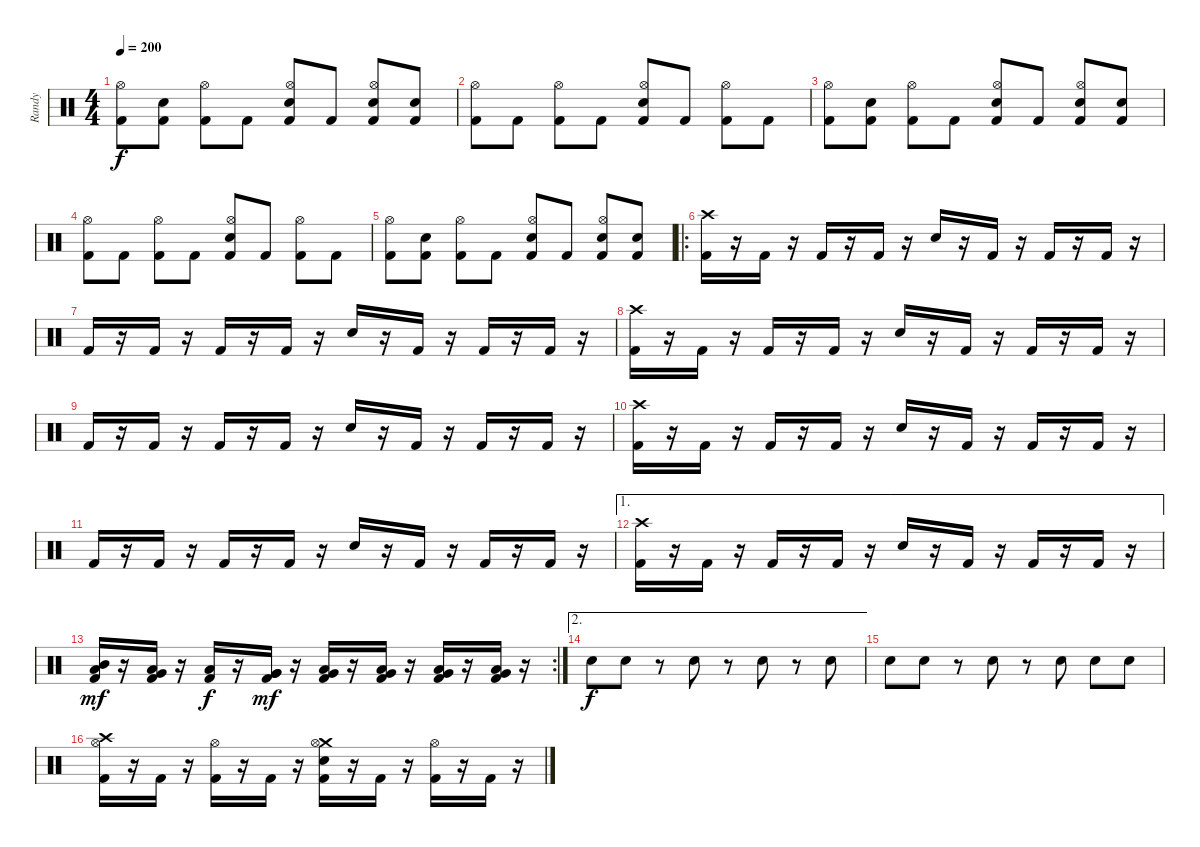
\track ("Randy" "Randy") {instrument percussion}
\staff {score}
\articulation defaults
\ts (4 4)
\tempo 200
\clef neutral
\ks c
("Kick (hit) 2" "Hi-Hat (open)").8{dy f} ("Kick (hit) 2" "Electric Snare (hit)").8 ("Kick (hit) 2" "Hi-Hat (open)").8 "Kick (hit) 2".8 ("Kick (hit) 2" "Electric Snare (hit)" "Hi-Hat (open)").8 "Kick (hit) 2".8 ("Kick (hit) 2" "Electric Snare (hit)" "Hi-Hat (open)").8 ("Kick (hit) 2" "Electric Snare (hit)").8 |
("Kick (hit) 2" "Hi-Hat (open)").8 "Kick (hit) 2".8 ("Kick (hit) 2" "Hi-Hat (open)").8 "Kick (hit) 2".8 ("Kick (hit) 2" "Electric Snare (hit)" "Hi-Hat (open)").8 "Kick (hit) 2".8 ("Kick (hit) 2" "Hi-Hat (open)").8 "Kick (hit) 2".8 |
("Kick (hit) 2" "Hi-Hat (open)").8 ("Kick (hit) 2" "Electric Snare (hit)").8 ("Kick (hit) 2" "Hi-Hat (open)").8 "Kick (hit) 2".8 ("Kick (hit) 2" "Electric Snare (hit)" "Hi-Hat (open)").8 "Kick (hit) 2".8 ("Kick (hit) 2" "Electric Snare (hit)" "Hi-Hat (open)").8 ("Kick (hit) 2" "Electric Snare (hit)").8 |
("Kick (hit) 2" "Hi-Hat (open)").8 "Kick (hit) 2".8 ("Kick (hit) 2" "Hi-Hat (open)").8 "Kick (hit) 2".8 ("Kick (hit) 2" "Electric Snare (hit)" "Hi-Hat (open)").8 "Kick (hit) 2".8 ("Kick (hit) 2" "Hi-Hat (open)").8 "Kick (hit) 2".8 |
("Kick (hit) 2" "Hi-Hat (open)").8 ("Kick (hit) 2" "Electric Snare (hit)").8 ("Kick (hit) 2" "Hi-Hat (open)").8 "Kick (hit) 2".8 ("Kick (hit) 2" "Electric Snare (hit)" "Hi-Hat (open)").8 "Kick (hit) 2".8 ("Kick (hit) 2" "Electric Snare (hit)" "Hi-Hat (open)").8 ("Kick (hit) 2" "Electric Snare (hit)").8 |
\ro
("Kick (hit) 2" "Crash high (hit)").16 r.16 "Kick (hit) 2".16 r.16 "Kick (hit) 2".16 r.16 "Kick (hit) 2".16 r.16 "Electric Snare (hit)".16 r.16 "Kick (hit) 2".16 r.16 "Kick (hit) 2".16 r.16 "Kick (hit) 2".16 r.16 |
"Kick (hit) 2".16 r.16 "Kick (hit) 2".16 r.16 "Kick (hit) 2".16 r.16 "Kick (hit) 2".16 r.16 "Electric Snare (hit)".16 r.16 "Kick (hit) 2".16 r.16 "Kick (hit) 2".16 r.16 "Kick (hit) 2".16 r.16 |
("Kick (hit) 2" "Crash high (hit)").16 r.16 "Kick (hit) 2".16 r.16 "Kick (hit) 2".16 r.16 "Kick (hit) 2".16 r.16 "Electric Snare (hit)".16 r.16 "Kick (hit) 2".16 r.16 "Kick (hit) 2".16 r.16 "Kick (hit) 2".16 r.16 |
"Kick (hit) 2".16 r.16 "Kick (hit) 2".16 r.16 "Kick (hit) 2".16 r.16 "Kick (hit) 2".16 r.16 "Electric Snare (hit)".16 r.16 "Kick (hit) 2".16 r.16 "Kick (hit) 2".16 r.16 "Kick (hit) 2".16 r.16 |
("Kick (hit) 2" "Crash high (hit)").16 r.16 "Kick (hit) 2".16 r.16 "Kick (hit) 2".16 r.16 "Kick (hit) 2".16 r.16 "Electric Snare (hit)".16 r.16 "Kick (hit) 2".16 r.16 "Kick (hit) 2".16 r.16 "Kick (hit) 2".16 r.16 |
"Kick (hit) 2".16 r.16 "Kick (hit) 2".16 r.16 "Kick (hit) 2".16 r.16 "Kick (hit) 2".16 r.16 "Electric Snare (hit)".16 r.16 "Kick (hit) 2".16 r.16 "Kick (hit) 2".16 r.16 "Kick (hit) 2".16 r.16 |
\ae 1
("Kick (hit) 2" "Crash high (hit)").16 r.16 "Kick (hit) 2".16 r.16 "Kick (hit) 2".16 r.16 "Kick (hit) 2".16 r.16 "Electric Snare (hit)".16 r.16 "Kick (hit) 2".16 r.16 "Kick (hit) 2".16 r.16 "Kick (hit) 2".16 r.16 |
\rc 2
("Kick (hit) 2" "Low Tom (hit)" "Mid Tom (hit)").16{dy mf} r.16 ("Kick (hit) 2" "Very Low Tom (hit)" "Low Tom (hit)").16 r.16 ("Kick (hit) 2" "Low Tom (hit)").16{dy f} r.16 ("Kick (hit) 2" "Very Low Tom (hit)" "Very Low Tom (hit)").16{dy mf} r.16 ("Kick (hit) 2" "Low Tom (hit)" "Very Low Tom (hit)").16 r.16 ("Kick (hit) 2" "Low Tom (hit)" "Very Low Tom (hit)").16 r.16 ("Kick (hit) 2" "Very Low Tom (hit)" "Low Floor Tom (hit)").16 r.16 ("Kick (hit) 2" "Very Low Tom (hit)" "Low Floor Tom (hit)").16 r.16 |
\ae 2 "Electric Snare (hit)".8{dy f} "Electric Snare (hit)".8
r.8 "Electric Snare (hit)".8 r.8 "Electric Snare (hit)".8 r.8 "Electric Snare (hit)".8 |
"Electric Snare (hit)".8 "Electric Snare (hit)".8 r.8 "Electric Snare (hit)".8 r.8 "Electric Snare (hit)".8 "Electric Snare (hit)".8 "Electric Snare (hit)".8 |
("Kick (hit) 2" "Crash high (hit)" "Hi-Hat (open)").16 r.16 "Kick (hit) 2".16 r.16 ("Kick (hit) 2" "Hi-Hat (open)").16 r.16 "Kick (hit) 2".16 r.16 ("Kick (hit) 2" "Electric Snare (hit)" "Crash medium (hit)" "Hi-Hat (open)").16 r.16 "Kick (hit) 2".16 r.16 ("Kick (hit) 2" "Hi-Hat (open)").16 r.16 "Kick (hit) 2".16 r.16
